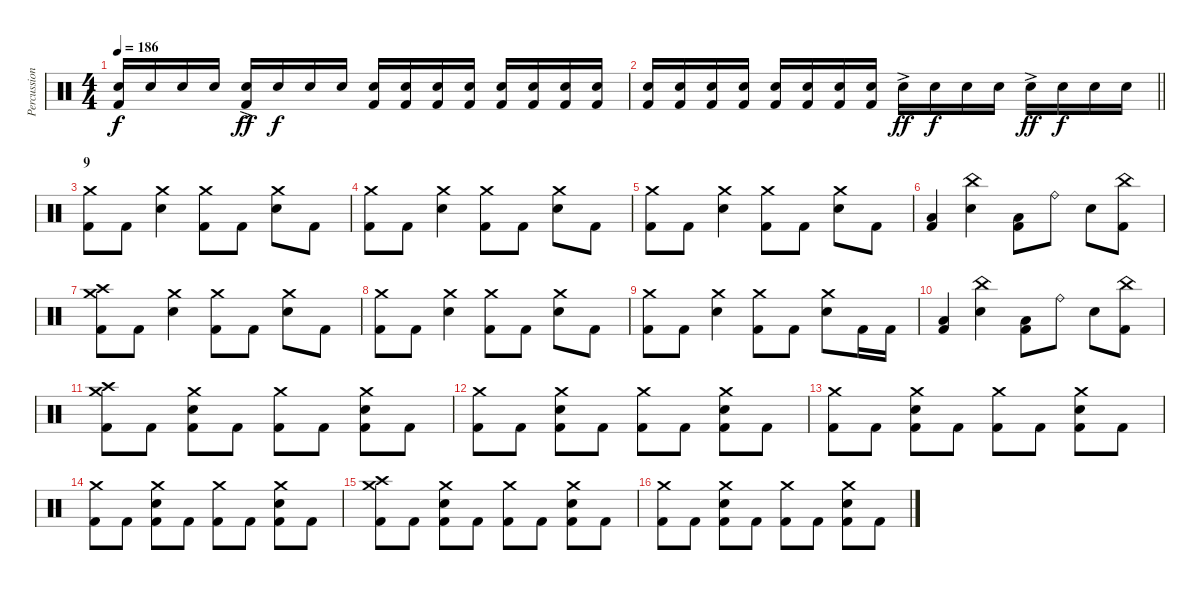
\track ("Percussion" "Percussion") {instrument percussion}
\staff {score}
\articulation defaults
\ts (4 4)
\tempo 186
\clef neutral
\ks c
("Electric Snare (hit)" "Kick (hit) 2").16{dy f} "Electric Snare (hit)".16 "Electric Snare (hit)".16 "Electric Snare (hit)".16 ("Electric Snare (hit)"{ac} "Kick (hit) 2").16{dy ff} "Electric Snare (hit)".16{dy f} "Electric Snare (hit)".16 "Electric Snare (hit)".16 ("Electric Snare (hit)" "Kick (hit) 2").16 ("Electric Snare (hit)" "Kick (hit) 2").16 ("Electric Snare (hit)" "Kick (hit) 2").16 ("Electric Snare (hit)" "Kick (hit) 2").16 ("Electric Snare (hit)" "Kick (hit) 2").16 ("Electric Snare (hit)" "Kick (hit) 2").16 ("Electric Snare (hit)" "Kick (hit) 2").16 ("Electric Snare (hit)" "Kick (hit) 2").16 |
\barLineRight lightlight
("Electric Snare (hit)" "Kick (hit) 2").16 ("Electric Snare (hit)" "Kick (hit) 2").16 ("Electric Snare (hit)" "Kick (hit) 2").16 ("Electric Snare (hit)" "Kick (hit) 2").16 ("Electric Snare (hit)" "Kick (hit) 2").16 ("Electric Snare (hit)" "Kick (hit) 2").16 ("Electric Snare (hit)" "Kick (hit) 2").16 ("Electric Snare (hit)" "Kick (hit) 2").16 "Electric Snare (hit)"{ac}.16{dy ff} "Electric Snare (hit)".16{dy f} "Electric Snare (hit)".16 "Electric Snare (hit)".16 "Electric Snare (hit)"{ac}.16{dy ff} "Electric Snare (hit)".16{dy f} "Electric Snare (hit)".16 "Electric Snare (hit)".16 |
\section ("" "9")
("Crash medium (hit)" "Kick (hit) 2").8 "Kick (hit) 2".8 ("Crash medium (hit)" "Electric Snare (hit)").4 ("Crash medium (hit)" "Kick (hit) 2").8 "Kick (hit) 2".8 ("Crash medium (hit)" "Electric Snare (hit)").8 "Kick (hit) 2".8 |
("Crash medium (hit)" "Kick (hit) 2").8 "Kick (hit) 2".8 ("Crash medium (hit)" "Electric Snare (hit)").4 ("Crash medium (hit)" "Kick (hit) 2").8 "Kick (hit) 2".8 ("Crash medium (hit)" "Electric Snare (hit)").8 "Kick (hit) 2".8 |
("Crash medium (hit)" "Kick (hit) 2").8 "Kick (hit) 2".8 ("Crash medium (hit)" "Electric Snare (hit)").4 ("Crash medium (hit)" "Kick (hit) 2").8 "Kick (hit) 2".8 ("Crash medium (hit)" "Electric Snare (hit)").8 "Kick (hit) 2".8 |
("Low Floor Tom (hit)" "Kick (hit) 2").4 ("China (hit)" "Electric Snare (hit)").4 ("Low Floor Tom (hit)" "Kick (hit) 2").8 "Ride (bell)".8 "Electric Snare (hit)".8 ("China (hit)" "Kick (hit) 2").8 |
("Crash medium (hit)" "Crash high (hit)" "Kick (hit) 2").8 "Kick (hit) 2".8 ("Crash medium (hit)" "Electric Snare (hit)").4 ("Crash medium (hit)" "Kick (hit) 2").8 "Kick (hit) 2".8 ("Crash medium (hit)" "Electric Snare (hit)").8 "Kick (hit) 2".8 |
("Crash medium (hit)" "Kick (hit) 2").8 "Kick (hit) 2".8 ("Crash medium (hit)" "Electric Snare (hit)").4 ("Crash medium (hit)" "Kick (hit) 2").8 "Kick (hit) 2".8 ("Crash medium (hit)" "Electric Snare (hit)").8 "Kick (hit) 2".8 |
("Crash medium (hit)" "Kick (hit) 2").8 "Kick (hit) 2".8 ("Crash medium (hit)" "Electric Snare (hit)").4 ("Crash medium (hit)" "Kick (hit) 2").8 "Kick (hit) 2".8 ("Crash medium (hit)" "Electric Snare (hit)").8 "Kick (hit) 2".16 "Kick (hit) 2".16 |
("Low Floor Tom (hit)" "Kick (hit) 2").4 ("China (hit)" "Electric Snare (hit)").4 ("Low Floor Tom (hit)" "Kick (hit) 2").8 "Ride (bell)".8 "Electric Snare (hit)".8 ("China (hit)" "Kick (hit) 2").8 |
("Crash medium (hit)" "Crash high (hit)" "Kick (hit) 2").8 "Kick (hit) 2".8 ("Crash medium (hit)" "Electric Snare (hit)" "Kick (hit) 2").8 "Kick (hit) 2".8 ("Crash medium (hit)" "Kick (hit) 2").8 "Kick (hit) 2".8 ("Crash medium (hit)" "Electric Snare (hit)" "Kick (hit) 2").8 "Kick (hit) 2".8 |
("Crash medium (hit)" "Kick (hit) 2").8 "Kick (hit) 2".8 ("Crash medium (hit)" "Electric Snare (hit)" "Kick (hit) 2").8 "Kick (hit) 2".8 ("Crash medium (hit)" "Kick (hit) 2").8 "Kick (hit) 2".8 ("Crash medium (hit)" "Electric Snare (hit)" "Kick (hit) 2").8 "Kick (hit) 2".8 |
("Crash medium (hit)" "Kick (hit) 2").8 "Kick (hit) 2".8 ("Crash medium (hit)" "Electric Snare (hit)" "Kick (hit) 2").8 "Kick (hit) 2".8 ("Crash medium (hit)" "Kick (hit) 2").8 "Kick (hit) 2".8 ("Crash medium (hit)" "Electric Snare (hit)" "Kick (hit) 2").8 "Kick (hit) 2".8 |
("Crash medium (hit)" "Kick (hit) 2").8 "Kick (hit) 2".8 ("Crash medium (hit)" "Electric Snare (hit)" "Kick (hit) 2").8 "Kick (hit) 2".8 ("Crash medium (hit)" "Kick (hit) 2").8 "Kick (hit) 2".8 ("Crash medium (hit)" "Electric Snare (hit)" "Kick (hit) 2").8 "Kick (hit) 2".8 |
("Crash medium (hit)" "Crash high (hit)" "Kick (hit) 2").8 "Kick (hit) 2".8 ("Crash medium (hit)" "Electric Snare (hit)" "Kick (hit) 2").8 "Kick (hit) 2".8 ("Crash medium (hit)" "Kick (hit) 2").8 "Kick (hit) 2".8 ("Crash medium (hit)" "Electric Snare (hit)" "Kick (hit) 2").8 "Kick (hit) 2".8 |
("Crash medium (hit)" "Kick (hit) 2").8 "Kick (hit) 2".8 ("Crash medium (hit)" "Electric Snare (hit)" "Kick (hit) 2").8 "Kick (hit) 2".8 ("Crash medium (hit)" "Kick (hit) 2").8 "Kick (hit) 2".8 ("Crash medium (hit)" "Electric Snare (hit)" "Kick (hit) 2").8 "Kick (hit) 2".8
